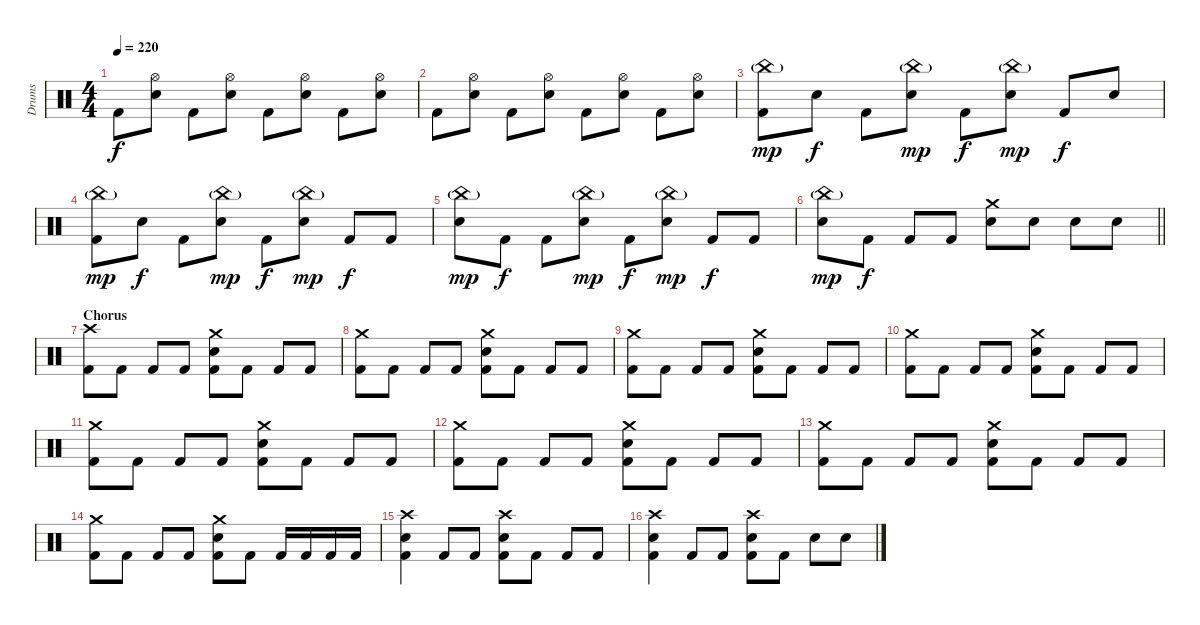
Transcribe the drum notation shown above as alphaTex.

\track ("Drums" "Drums") {instrument percussion}
\staff {score}
\articulation defaults
\ts (4 4)
\tempo 220
\clef neutral
\ks c "Kick (hit) 2".8{dy f}
("Hi-Hat (open)" "Snare (hit) 2").8 "Kick (hit) 2".8 ("Hi-Hat (open)" "Snare (hit) 2").8 "Kick (hit) 2".8 ("Hi-Hat (open)" "Snare (hit) 2").8 "Kick (hit) 2".8 ("Hi-Hat (open)" "Snare (hit) 2").8 |
"Kick (hit) 2".8 ("Hi-Hat (open)" "Snare (hit) 2").8 "Kick (hit) 2".8 ("Hi-Hat (open)" "Snare (hit) 2").8 "Kick (hit) 2".8 ("Hi-Hat (open)" "Snare (hit) 2").8 "Kick (hit) 2".8 ("Hi-Hat (open)" "Snare (hit) 2").8 |
("China (hit)"{g} "Kick (hit) 2").8{dy mp} "Snare (hit) 2".8{dy f} "Kick (hit) 2".8 ("China (hit)"{g} "Snare (hit) 2").8{dy mp} "Kick (hit) 2".8{dy f} ("China (hit)"{g} "Snare (hit) 2").8{dy mp} "Kick (hit) 2".8{dy f} "Snare (hit) 2".8 |
("China (hit)"{g} "Kick (hit) 2").8{dy mp} "Snare (hit) 2".8{dy f} "Kick (hit) 2".8 ("China (hit)"{g} "Snare (hit) 2").8{dy mp} "Kick (hit) 2".8{dy f} ("China (hit)"{g} "Snare (hit) 2").8{dy mp} "Kick (hit) 2".8{dy f} "Kick (hit) 2".8 |
("China (hit)"{g} "Snare (hit) 2").8{dy mp} "Kick (hit) 2".8{dy f} "Kick (hit) 2".8 ("China (hit)"{g} "Snare (hit) 2").8{dy mp} "Kick (hit) 2".8{dy f} ("China (hit)"{g} "Snare (hit) 2").8{dy mp} "Kick (hit) 2".8{dy f} "Kick (hit) 2".8 |
\barLineRight lightlight
("China (hit)"{g} "Snare (hit) 2").8{dy mp} "Kick (hit) 2".8{dy f} "Kick (hit) 2".8 "Kick (hit) 2".8 ("Crash medium (hit)" "Snare (hit) 2").8 "Snare (hit) 2".8 "Snare (hit) 2".8 "Snare (hit) 2".8 |
\section ("" "Chorus")
("Crash high (hit)" "Kick (hit) 2").8 "Kick (hit) 2".8 "Kick (hit) 2".8 "Kick (hit) 2".8 ("Crash medium (hit)" "Snare (hit) 2" "Kick (hit) 2").8 "Kick (hit) 2".8 "Kick (hit) 2".8 "Kick (hit) 2".8 |
("Crash medium (hit)" "Kick (hit) 2").8 "Kick (hit) 2".8 "Kick (hit) 2".8 "Kick (hit) 2".8 ("Crash medium (hit)" "Snare (hit) 2" "Kick (hit) 2").8 "Kick (hit) 2".8 "Kick (hit) 2".8 "Kick (hit) 2".8 |
("Crash medium (hit)" "Kick (hit) 2").8 "Kick (hit) 2".8 "Kick (hit) 2".8 "Kick (hit) 2".8 ("Crash medium (hit)" "Snare (hit) 2" "Kick (hit) 2").8 "Kick (hit) 2".8 "Kick (hit) 2".8 "Kick (hit) 2".8 |
("Crash medium (hit)" "Kick (hit) 2").8 "Kick (hit) 2".8 "Kick (hit) 2".8 "Kick (hit) 2".8 ("Crash medium (hit)" "Snare (hit) 2" "Kick (hit) 2").8 "Kick (hit) 2".8 "Kick (hit) 2".8 "Kick (hit) 2".8 |
("Crash medium (hit)" "Kick (hit) 2").8 "Kick (hit) 2".8 "Kick (hit) 2".8 "Kick (hit) 2".8 ("Crash medium (hit)" "Snare (hit) 2" "Kick (hit) 2").8 "Kick (hit) 2".8 "Kick (hit) 2".8 "Kick (hit) 2".8 |
("Crash medium (hit)" "Kick (hit) 2").8 "Kick (hit) 2".8 "Kick (hit) 2".8 "Kick (hit) 2".8 ("Crash medium (hit)" "Snare (hit) 2" "Kick (hit) 2").8 "Kick (hit) 2".8 "Kick (hit) 2".8 "Kick (hit) 2".8 |
("Crash medium (hit)" "Kick (hit) 2").8 "Kick (hit) 2".8 "Kick (hit) 2".8 "Kick (hit) 2".8 ("Crash medium (hit)" "Snare (hit) 2" "Kick (hit) 2").8 "Kick (hit) 2".8 "Kick (hit) 2".8 "Kick (hit) 2".8 |
("Crash medium (hit)" "Kick (hit) 2").8 "Kick (hit) 2".8 "Kick (hit) 2".8 "Kick (hit) 2".8 ("Crash medium (hit)" "Snare (hit) 2" "Kick (hit) 2").8 "Kick (hit) 2".8 "Kick (hit) 2".16 "Kick (hit) 2".16 "Kick (hit) 2".16 "Kick (hit) 2".16 |
("Crash high (hit)" "Snare (hit) 2" "Kick (hit) 2").4 "Kick (hit) 2".8 "Kick (hit) 2".8 ("Crash high (hit)" "Snare (hit) 2" "Kick (hit) 2").8 "Kick (hit) 2".8 "Kick (hit) 2".8 "Kick (hit) 2".8 |
("Crash high (hit)" "Snare (hit) 2" "Kick (hit) 2").4 "Kick (hit) 2".8 "Kick (hit) 2".8 ("Crash high (hit)" "Snare (hit) 2" "Kick (hit) 2").8 "Kick (hit) 2".8 "Snare (hit) 2".8 "Snare (hit) 2".8
